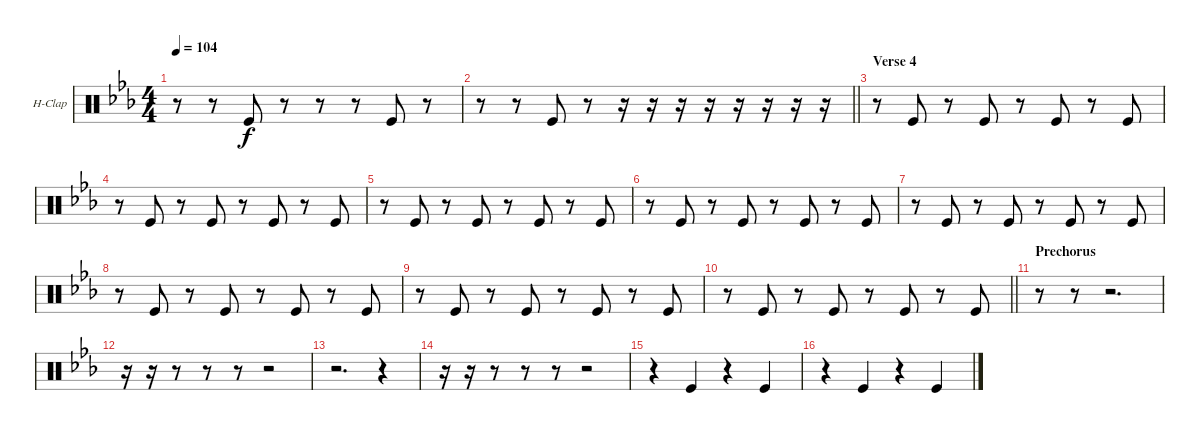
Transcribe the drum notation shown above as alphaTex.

\bracketExtendMode groupsimilarinstruments
\firstSystemTrackNameOrientation horizontal
\otherSystemsTrackNameOrientation horizontal
\track ("Hand Clap" "H-Clap") {instrument percussion}
\staff {score}
\articulation defaults
\ts (4 4)
\tempo 104
\clef neutral
\ks eb
r.8{dy f} r.8 "Kick (hit)".8 r.8 r.8 r.8 "Kick (hit)".8 r.8 |
\barLineRight lightlight
r.8 r.8 "Kick (hit)".8 r.8 r.16 r.16 r.16 r.16 r.16 r.16 r.16 r.16 |
\section ("" "Verse 4")
r.8 "Kick (hit)".8 r.8 "Kick (hit)".8 r.8 "Kick (hit)".8 r.8 "Kick (hit)".8 |
r.8 "Kick (hit)".8 r.8 "Kick (hit)".8 r.8 "Kick (hit)".8 r.8 "Kick (hit)".8 |
r.8 "Kick (hit)".8 r.8 "Kick (hit)".8 r.8 "Kick (hit)".8 r.8 "Kick (hit)".8 |
r.8 "Kick (hit)".8 r.8 "Kick (hit)".8 r.8 "Kick (hit)".8 r.8 "Kick (hit)".8 |
r.8 "Kick (hit)".8 r.8 "Kick (hit)".8 r.8 "Kick (hit)".8 r.8 "Kick (hit)".8 |
r.8 "Kick (hit)".8 r.8 "Kick (hit)".8 r.8 "Kick (hit)".8 r.8 "Kick (hit)".8 |
r.8 "Kick (hit)".8 r.8 "Kick (hit)".8 r.8 "Kick (hit)".8 r.8 "Kick (hit)".8 |
\barLineRight lightlight
r.8 "Kick (hit)".8 r.8 "Kick (hit)".8 r.8 "Kick (hit)".8 r.8 "Kick (hit)".8 |
\section ("" "Prechorus")
r.8 r.8 r.2{d} |
r.16 r.16 r.8 r.8 r.8 r.2 |
r.2{d} r.4 |
r.16 r.16 r.8 r.8 r.8 r.2 |
r.4 "Kick (hit)".4 r.4 "Kick (hit)".4 |
r.4 "Kick (hit)".4 r.4 "Kick (hit)".4
